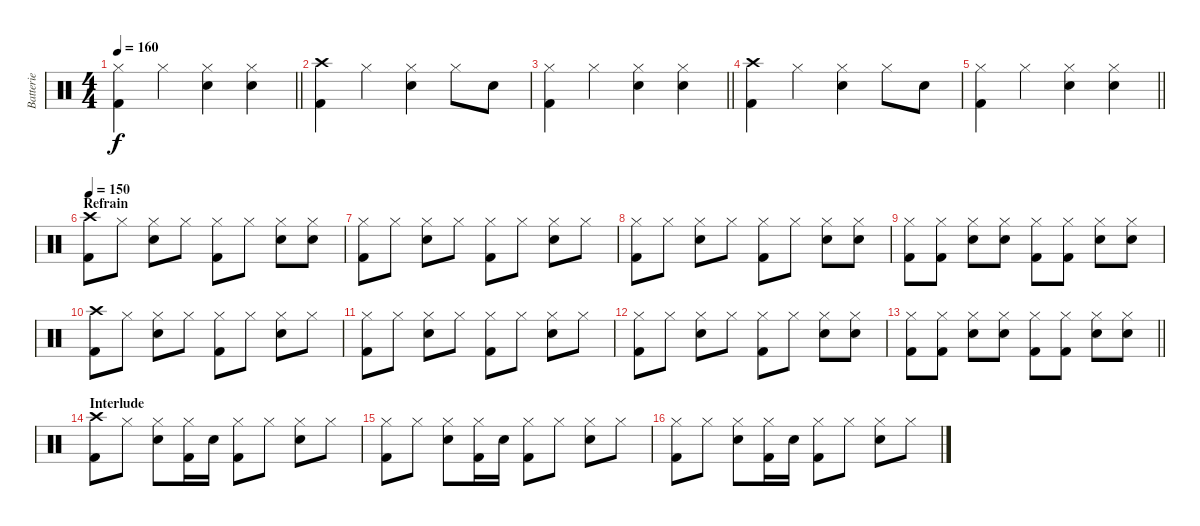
\track ("Batterie" "Batterie") {instrument percussion}
\staff {score}
\articulation defaults
\ts (4 4)
\tempo 160
\clef neutral
\barLineRight lightlight
\ks c
("Hi-Hat (closed)" "Kick (hit) 2").4{dy f} "Hi-Hat (closed)".4 ("Hi-Hat (closed)" "Electric Snare (hit)").4 ("Hi-Hat (closed)" "Electric Snare (hit)").4 |
("Crash high (hit)" "Kick (hit) 2").4 "Hi-Hat (closed)".4 ("Hi-Hat (closed)" "Electric Snare (hit)").4 "Hi-Hat (closed)".8 "Electric Snare (hit)".8 |
\barLineRight lightlight
("Hi-Hat (closed)" "Kick (hit) 2").4 "Hi-Hat (closed)".4 ("Hi-Hat (closed)" "Electric Snare (hit)").4 ("Hi-Hat (closed)" "Electric Snare (hit)").4 |
("Crash high (hit)" "Kick (hit) 2").4 "Hi-Hat (closed)".4 ("Hi-Hat (closed)" "Electric Snare (hit)").4 "Hi-Hat (closed)".8 "Electric Snare (hit)".8 |
\barLineRight lightlight
("Hi-Hat (closed)" "Kick (hit) 2").4 "Hi-Hat (closed)".4 ("Hi-Hat (closed)" "Electric Snare (hit)").4 ("Hi-Hat (closed)" "Electric Snare (hit)").4 |
\section ("" "Refrain")
\tempo 150
("Crash high (hit)" "Kick (hit) 2").8 "Hi-Hat (closed)".8 ("Hi-Hat (closed)" "Electric Snare (hit)").8 "Hi-Hat (closed)".8 ("Hi-Hat (closed)" "Kick (hit) 2").8 "Hi-Hat (closed)".8 ("Hi-Hat (closed)" "Electric Snare (hit)").8 ("Hi-Hat (closed)" "Electric Snare (hit)").8 |
("Hi-Hat (closed)" "Kick (hit) 2").8 "Hi-Hat (closed)".8 ("Hi-Hat (closed)" "Electric Snare (hit)").8 "Hi-Hat (closed)".8 ("Hi-Hat (closed)" "Kick (hit) 2").8 "Hi-Hat (closed)".8 ("Hi-Hat (closed)" "Electric Snare (hit)").8 "Hi-Hat (closed)".8 |
("Hi-Hat (closed)" "Kick (hit) 2").8 "Hi-Hat (closed)".8 ("Hi-Hat (closed)" "Electric Snare (hit)").8 "Hi-Hat (closed)".8 ("Hi-Hat (closed)" "Kick (hit) 2").8 "Hi-Hat (closed)".8 ("Hi-Hat (closed)" "Electric Snare (hit)").8 ("Hi-Hat (closed)" "Electric Snare (hit)").8 |
("Hi-Hat (closed)" "Kick (hit) 2").8 ("Hi-Hat (closed)" "Kick (hit) 2").8 ("Hi-Hat (closed)" "Electric Snare (hit)").8 ("Hi-Hat (closed)" "Electric Snare (hit)").8 ("Hi-Hat (closed)" "Kick (hit) 2").8 ("Hi-Hat (closed)" "Kick (hit) 2").8 ("Hi-Hat (closed)" "Electric Snare (hit)").8 ("Hi-Hat (closed)" "Electric Snare (hit)").8 |
("Crash high (hit)" "Kick (hit) 2").8 "Hi-Hat (closed)".8 ("Hi-Hat (closed)" "Electric Snare (hit)").8 "Hi-Hat (closed)".8 ("Hi-Hat (closed)" "Kick (hit) 2").8 "Hi-Hat (closed)".8 ("Hi-Hat (closed)" "Electric Snare (hit)").8 "Hi-Hat (closed)".8 |
("Hi-Hat (closed)" "Kick (hit) 2").8 "Hi-Hat (closed)".8 ("Hi-Hat (closed)" "Electric Snare (hit)").8 "Hi-Hat (closed)".8 ("Hi-Hat (closed)" "Kick (hit) 2").8 "Hi-Hat (closed)".8 ("Hi-Hat (closed)" "Electric Snare (hit)").8 "Hi-Hat (closed)".8 |
("Hi-Hat (closed)" "Kick (hit) 2").8 "Hi-Hat (closed)".8 ("Hi-Hat (closed)" "Electric Snare (hit)").8 "Hi-Hat (closed)".8 ("Hi-Hat (closed)" "Kick (hit) 2").8 "Hi-Hat (closed)".8 ("Hi-Hat (closed)" "Electric Snare (hit)").8 ("Hi-Hat (closed)" "Electric Snare (hit)").8 |
\barLineRight lightlight
("Hi-Hat (closed)" "Kick (hit) 2").8 ("Hi-Hat (closed)" "Kick (hit) 2").8 ("Hi-Hat (closed)" "Electric Snare (hit)").8 ("Hi-Hat (closed)" "Electric Snare (hit)").8 ("Hi-Hat (closed)" "Kick (hit) 2").8 ("Hi-Hat (closed)" "Kick (hit) 2").8 ("Hi-Hat (closed)" "Electric Snare (hit)").8 ("Hi-Hat (closed)" "Electric Snare (hit)").8 |
\section ("" "Interlude")
("Crash high (hit)" "Kick (hit) 2").8 "Hi-Hat (closed)".8 ("Hi-Hat (closed)" "Electric Snare (hit)").8 ("Hi-Hat (closed)" "Kick (hit) 2").16 "Electric Snare (hit)".16 ("Hi-Hat (closed)" "Kick (hit) 2").8 "Hi-Hat (closed)".8 ("Hi-Hat (closed)" "Electric Snare (hit)").8 "Hi-Hat (closed)".8 |
("Hi-Hat (closed)" "Kick (hit) 2").8 "Hi-Hat (closed)".8 ("Hi-Hat (closed)" "Electric Snare (hit)").8 ("Hi-Hat (closed)" "Kick (hit) 2").16 "Electric Snare (hit)".16 ("Hi-Hat (closed)" "Kick (hit) 2").8 "Hi-Hat (closed)".8 ("Hi-Hat (closed)" "Electric Snare (hit)").8 "Hi-Hat (closed)".8 |
("Hi-Hat (closed)" "Kick (hit) 2").8 "Hi-Hat (closed)".8 ("Hi-Hat (closed)" "Electric Snare (hit)").8 ("Hi-Hat (closed)" "Kick (hit) 2").16 "Electric Snare (hit)".16 ("Hi-Hat (closed)" "Kick (hit) 2").8 "Hi-Hat (closed)".8 ("Hi-Hat (closed)" "Electric Snare (hit)").8 "Hi-Hat (closed)".8
